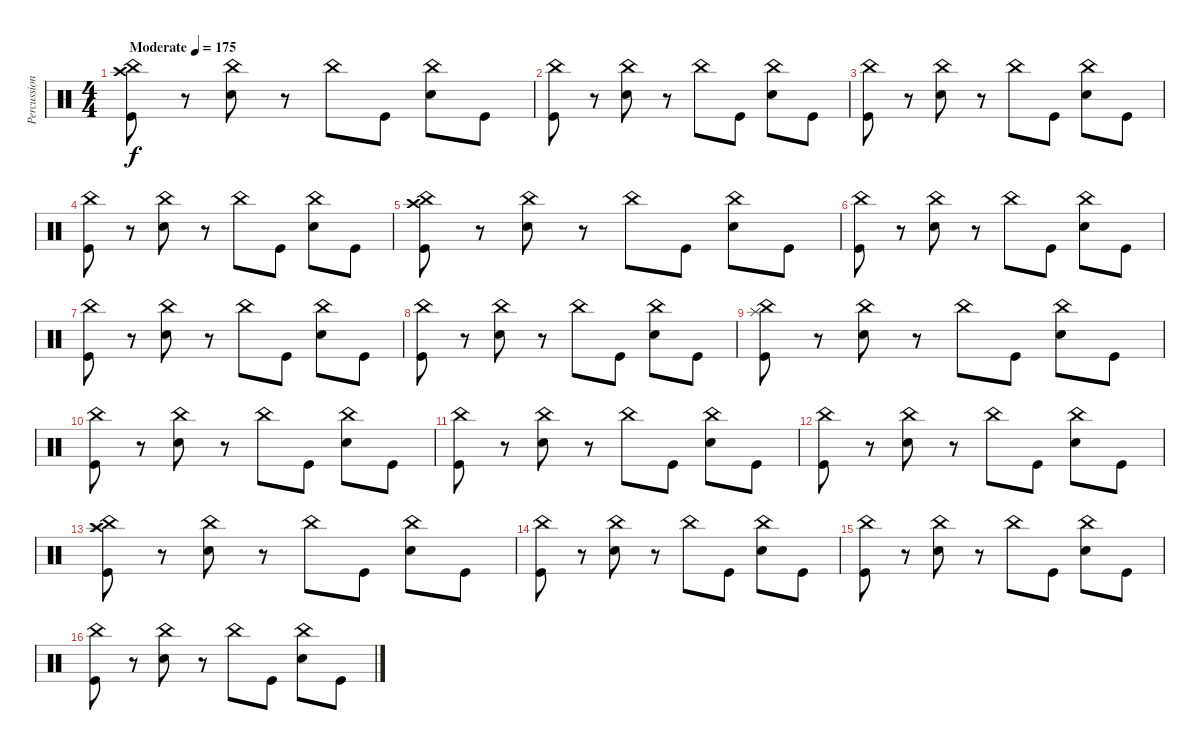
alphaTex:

\track ("Percussion" "Percussion") {instrument percussion}
\staff {score}
\articulation defaults
\ts (4 4)
\tempo (175 "Moderate")
\clef neutral
\ks c
("Crash high (hit)" "China (hit)" "Kick (hit)").8{dy f} r.8 ("China (hit)" "Snare (hit) 2").8 r.8 "China (hit)".8 "Kick (hit)".8 ("China (hit)" "Snare (hit) 2").8 "Kick (hit)".8 |
("China (hit)" "Kick (hit)").8 r.8 ("China (hit)" "Snare (hit) 2").8 r.8 "China (hit)".8 "Kick (hit)".8 ("China (hit)" "Snare (hit) 2").8 "Kick (hit)".8 |
("China (hit)" "Kick (hit)").8 r.8 ("China (hit)" "Snare (hit) 2").8 r.8 "China (hit)".8 "Kick (hit)".8 ("China (hit)" "Snare (hit) 2").8 "Kick (hit)".8 |
("China (hit)" "Kick (hit)").8 r.8 ("China (hit)" "Snare (hit) 2").8 r.8 "China (hit)".8 "Kick (hit)".8 ("China (hit)" "Snare (hit) 2").8 "Kick (hit)".8 |
("Crash high (hit)" "China (hit)" "Kick (hit)").8 r.8 ("China (hit)" "Snare (hit) 2").8 r.8 "China (hit)".8 "Kick (hit)".8 ("China (hit)" "Snare (hit) 2").8 "Kick (hit)".8 |
("China (hit)" "Kick (hit)").8 r.8 ("China (hit)" "Snare (hit) 2").8 r.8 "China (hit)".8 "Kick (hit)".8 ("China (hit)" "Snare (hit) 2").8 "Kick (hit)".8 |
("China (hit)" "Kick (hit)").8 r.8 ("China (hit)" "Snare (hit) 2").8 r.8 "China (hit)".8 "Kick (hit)".8 ("China (hit)" "Snare (hit) 2").8 "Kick (hit)".8 |
("China (hit)" "Kick (hit)").8 r.8 ("China (hit)" "Snare (hit) 2").8 r.8 "China (hit)".8 "Kick (hit)".8 ("China (hit)" "Snare (hit) 2").8 "Kick (hit)".8 |
("Splash (hit)" "China (hit)" "Kick (hit)").8 r.8 ("China (hit)" "Snare (hit) 2").8 r.8 "China (hit)".8 "Kick (hit)".8 ("China (hit)" "Snare (hit) 2").8 "Kick (hit)".8 |
("China (hit)" "Kick (hit)").8 r.8 ("China (hit)" "Snare (hit) 2").8 r.8 "China (hit)".8 "Kick (hit)".8 ("China (hit)" "Snare (hit) 2").8 "Kick (hit)".8 |
("China (hit)" "Kick (hit)").8 r.8 ("China (hit)" "Snare (hit) 2").8 r.8 "China (hit)".8 "Kick (hit)".8 ("China (hit)" "Snare (hit) 2").8 "Kick (hit)".8 |
("China (hit)" "Kick (hit)").8 r.8 ("China (hit)" "Snare (hit) 2").8 r.8 "China (hit)".8 "Kick (hit)".8 ("China (hit)" "Snare (hit) 2").8 "Kick (hit)".8 |
("Splash (hit)" "Crash high (hit)" "China (hit)" "Kick (hit)").8 r.8 ("China (hit)" "Snare (hit) 2").8 r.8 "China (hit)".8 "Kick (hit)".8 ("China (hit)" "Snare (hit) 2").8 "Kick (hit)".8 |
("China (hit)" "Kick (hit)").8 r.8 ("China (hit)" "Snare (hit) 2").8 r.8 "China (hit)".8 "Kick (hit)".8 ("China (hit)" "Snare (hit) 2").8 "Kick (hit)".8 |
("China (hit)" "Kick (hit)").8 r.8 ("China (hit)" "Snare (hit) 2").8 r.8 "China (hit)".8 "Kick (hit)".8 ("China (hit)" "Snare (hit) 2").8 "Kick (hit)".8 |
("China (hit)" "Kick (hit)").8 r.8 ("China (hit)" "Snare (hit) 2").8 r.8 "China (hit)".8 "Kick (hit)".8 ("China (hit)" "Snare (hit) 2").8 "Kick (hit)".8
